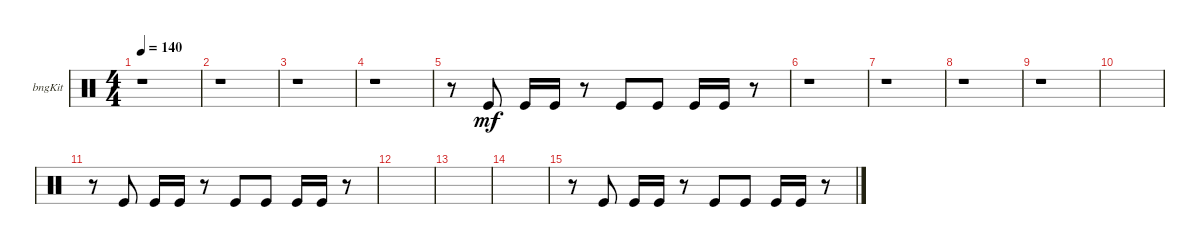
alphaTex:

\defaultSystemsLayout 4
\bracketExtendMode groupsimilarinstruments
\firstSystemTrackNameOrientation horizontal
\otherSystemsTrackNameOrientation horizontal
\track ("Bongos" "bngKit") {instrument percussion}
\staff {score}
\articulation defaults
\ts (4 4)
\tempo 140
\clef neutral
\scale
0.472222
\ks c
r.1{dy mf} |
\scale
0.263889 r.1 |
\scale
0.263889 r.1 |
\scale
0.333333 r.1 |
\scale
0.333333 r.8 "Kick (hit)".8 "Kick (hit)".16 "Kick (hit)".16 r.8 "Kick (hit)".8 "Kick (hit)".8 "Kick (hit)".16 "Kick (hit)".16 r.8 |
\scale
0.333333 r.1 |
\scale
0.333333 r.1 |
\scale
0.333333 r.1 |
\scale
0.333333 r.1 |
|
r.8 "Kick (hit)".8 "Kick (hit)".16 "Kick (hit)".16 r.8 "Kick (hit)".8 "Kick (hit)".8 "Kick (hit)".16 "Kick (hit)".16 r.8 |
|
|
|
r.8 "Kick (hit)".8 "Kick (hit)".16 "Kick (hit)".16 r.8 "Kick (hit)".8 "Kick (hit)".8 "Kick (hit)".16 "Kick (hit)".16 r.8
